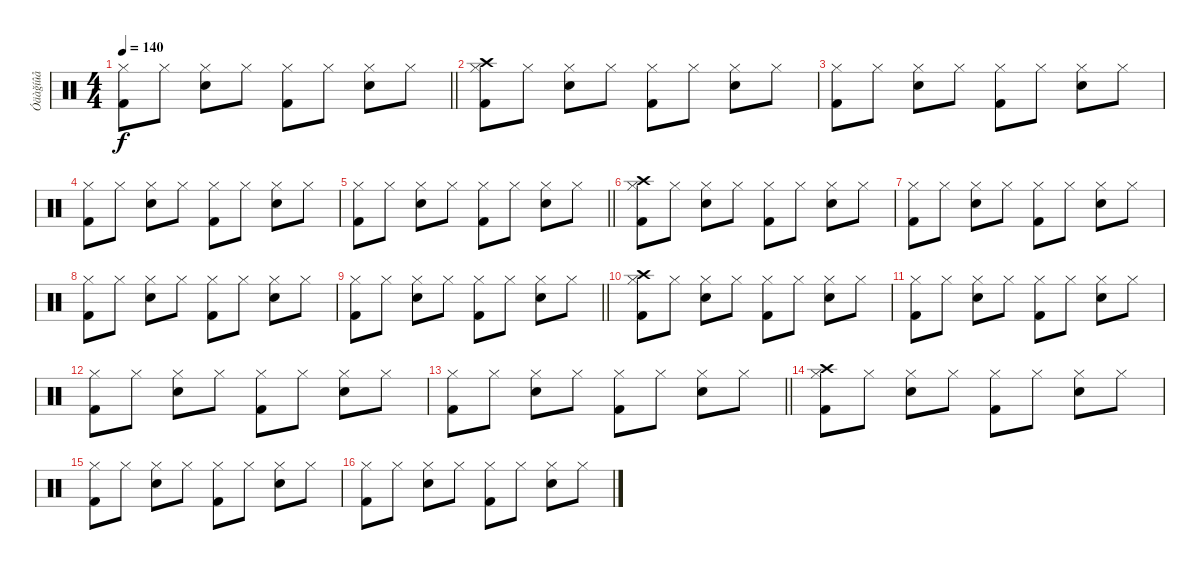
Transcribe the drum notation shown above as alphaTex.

\track ("Óäàğíûå" "Óäàğíûå") {instrument percussion}
\staff {score}
\articulation defaults
\ts (4 4)
\tempo 140
\clef neutral
\barLineRight lightlight
\ks c
("Hi-Hat (closed)" "Kick (hit) 2").8{dy f} "Hi-Hat (closed)".8 ("Hi-Hat (closed)" "Snare (hit) 2").8 "Hi-Hat (closed)".8 ("Hi-Hat (closed)" "Kick (hit) 2").8 "Hi-Hat (closed)".8 ("Hi-Hat (closed)" "Snare (hit) 2").8 "Hi-Hat (closed)".8 |
("Hi-Hat (closed)" "Kick (hit) 2" "Crash high (hit)").8 "Hi-Hat (closed)".8 ("Hi-Hat (closed)" "Snare (hit) 2").8 "Hi-Hat (closed)".8 ("Hi-Hat (closed)" "Kick (hit) 2").8 "Hi-Hat (closed)".8 ("Hi-Hat (closed)" "Snare (hit) 2").8 "Hi-Hat (closed)".8 |
("Hi-Hat (closed)" "Kick (hit) 2").8 "Hi-Hat (closed)".8 ("Hi-Hat (closed)" "Snare (hit) 2").8 "Hi-Hat (closed)".8 ("Hi-Hat (closed)" "Kick (hit) 2").8 "Hi-Hat (closed)".8 ("Hi-Hat (closed)" "Snare (hit) 2").8 "Hi-Hat (closed)".8 |
("Hi-Hat (closed)" "Kick (hit) 2").8 "Hi-Hat (closed)".8 ("Hi-Hat (closed)" "Snare (hit) 2").8 "Hi-Hat (closed)".8 ("Hi-Hat (closed)" "Kick (hit) 2").8 "Hi-Hat (closed)".8 ("Hi-Hat (closed)" "Snare (hit) 2").8 "Hi-Hat (closed)".8 |
\barLineRight lightlight
("Hi-Hat (closed)" "Kick (hit) 2").8 "Hi-Hat (closed)".8 ("Hi-Hat (closed)" "Snare (hit) 2").8 "Hi-Hat (closed)".8 ("Hi-Hat (closed)" "Kick (hit) 2").8 "Hi-Hat (closed)".8 ("Hi-Hat (closed)" "Snare (hit) 2").8 "Hi-Hat (closed)".8 |
("Hi-Hat (closed)" "Kick (hit) 2" "Crash high (hit)").8 "Hi-Hat (closed)".8 ("Hi-Hat (closed)" "Snare (hit) 2").8 "Hi-Hat (closed)".8 ("Hi-Hat (closed)" "Kick (hit) 2").8 "Hi-Hat (closed)".8 ("Hi-Hat (closed)" "Snare (hit) 2").8 "Hi-Hat (closed)".8 |
("Hi-Hat (closed)" "Kick (hit) 2").8 "Hi-Hat (closed)".8 ("Hi-Hat (closed)" "Snare (hit) 2").8 "Hi-Hat (closed)".8 ("Hi-Hat (closed)" "Kick (hit) 2").8 "Hi-Hat (closed)".8 ("Hi-Hat (closed)" "Snare (hit) 2").8 "Hi-Hat (closed)".8 |
("Hi-Hat (closed)" "Kick (hit) 2").8 "Hi-Hat (closed)".8 ("Hi-Hat (closed)" "Snare (hit) 2").8 "Hi-Hat (closed)".8 ("Hi-Hat (closed)" "Kick (hit) 2").8 "Hi-Hat (closed)".8 ("Hi-Hat (closed)" "Snare (hit) 2").8 "Hi-Hat (closed)".8 |
\barLineRight lightlight
("Hi-Hat (closed)" "Kick (hit) 2").8 "Hi-Hat (closed)".8 ("Hi-Hat (closed)" "Snare (hit) 2").8 "Hi-Hat (closed)".8 ("Hi-Hat (closed)" "Kick (hit) 2").8 "Hi-Hat (closed)".8 ("Hi-Hat (closed)" "Snare (hit) 2").8 "Hi-Hat (closed)".8 |
("Hi-Hat (closed)" "Kick (hit) 2" "Crash high (hit)").8 "Hi-Hat (closed)".8 ("Hi-Hat (closed)" "Snare (hit) 2").8 "Hi-Hat (closed)".8 ("Hi-Hat (closed)" "Kick (hit) 2").8 "Hi-Hat (closed)".8 ("Hi-Hat (closed)" "Snare (hit) 2").8 "Hi-Hat (closed)".8 |
("Hi-Hat (closed)" "Kick (hit) 2").8 "Hi-Hat (closed)".8 ("Hi-Hat (closed)" "Snare (hit) 2").8 "Hi-Hat (closed)".8 ("Hi-Hat (closed)" "Kick (hit) 2").8 "Hi-Hat (closed)".8 ("Hi-Hat (closed)" "Snare (hit) 2").8 "Hi-Hat (closed)".8 |
("Hi-Hat (closed)" "Kick (hit) 2").8 "Hi-Hat (closed)".8 ("Hi-Hat (closed)" "Snare (hit) 2").8 "Hi-Hat (closed)".8 ("Hi-Hat (closed)" "Kick (hit) 2").8 "Hi-Hat (closed)".8 ("Hi-Hat (closed)" "Snare (hit) 2").8 "Hi-Hat (closed)".8 |
\barLineRight lightlight
("Hi-Hat (closed)" "Kick (hit) 2").8 "Hi-Hat (closed)".8 ("Hi-Hat (closed)" "Snare (hit) 2").8 "Hi-Hat (closed)".8 ("Hi-Hat (closed)" "Kick (hit) 2").8 "Hi-Hat (closed)".8 ("Hi-Hat (closed)" "Snare (hit) 2").8 "Hi-Hat (closed)".8 |
("Hi-Hat (closed)" "Kick (hit) 2" "Crash high (hit)").8 "Hi-Hat (closed)".8 ("Hi-Hat (closed)" "Snare (hit) 2").8 "Hi-Hat (closed)".8 ("Hi-Hat (closed)" "Kick (hit) 2").8 "Hi-Hat (closed)".8 ("Hi-Hat (closed)" "Snare (hit) 2").8 "Hi-Hat (closed)".8 |
("Hi-Hat (closed)" "Kick (hit) 2").8 "Hi-Hat (closed)".8 ("Hi-Hat (closed)" "Snare (hit) 2").8 "Hi-Hat (closed)".8 ("Hi-Hat (closed)" "Kick (hit) 2").8 "Hi-Hat (closed)".8 ("Hi-Hat (closed)" "Snare (hit) 2").8 "Hi-Hat (closed)".8 |
("Hi-Hat (closed)" "Kick (hit) 2").8 "Hi-Hat (closed)".8 ("Hi-Hat (closed)" "Snare (hit) 2").8 "Hi-Hat (closed)".8 ("Hi-Hat (closed)" "Kick (hit) 2").8 "Hi-Hat (closed)".8 ("Hi-Hat (closed)" "Snare (hit) 2").8 "Hi-Hat (closed)".8
